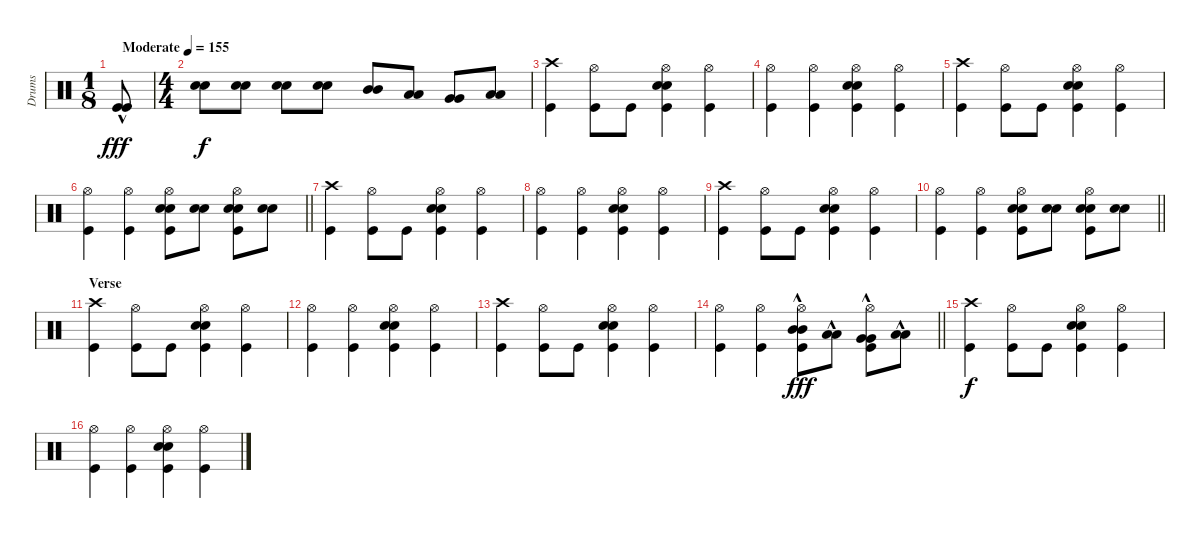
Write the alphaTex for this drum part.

\track ("Drums" "Drums") {instrument percussion}
\staff {score}
\articulation defaults
\ts (1 8)
\tempo (155 "Moderate")
\clef neutral
\ks c
("Kick (hit)"{hac} "Kick (hit)"{hac}).8{dy fff} |
\ts (4 4)
("Snare (hit) 2" "Electric Snare (hit)").8{dy f} ("Snare (hit) 2" "Electric Snare (hit)").8 ("Snare (hit) 2" "Electric Snare (hit)").8 ("Snare (hit) 2" "Electric Snare (hit)").8 ("Mid Tom (hit)" "Mid Tom (hit)").8 ("Low Tom (hit)" "Low Tom (hit)").8 ("Very Low Tom (hit)" "Very Low Tom (hit)").8 ("Low Floor Tom (hit)" "Low Floor Tom (hit)").8 |
("Crash high (hit)" "Kick (hit)").4 ("Hi-Hat (open)" "Kick (hit)").8 "Kick (hit)".8 ("Hi-Hat (open)" "Snare (hit) 2" "Electric Snare (hit)" "Kick (hit)").4 ("Hi-Hat (open)" "Kick (hit)").4 |
("Hi-Hat (open)" "Kick (hit)").4 ("Hi-Hat (open)" "Kick (hit)").4 ("Hi-Hat (open)" "Snare (hit) 2" "Electric Snare (hit)" "Kick (hit)").4 ("Hi-Hat (open)" "Kick (hit)").4 |
("Crash high (hit)" "Kick (hit)").4 ("Hi-Hat (open)" "Kick (hit)").8 "Kick (hit)".8 ("Hi-Hat (open)" "Snare (hit) 2" "Electric Snare (hit)" "Kick (hit)").4 ("Hi-Hat (open)" "Kick (hit)").4 |
\barLineRight lightlight
("Hi-Hat (open)" "Kick (hit)").4 ("Hi-Hat (open)" "Kick (hit)").4 ("Hi-Hat (open)" "Snare (hit) 2" "Electric Snare (hit)" "Kick (hit)").8 ("Snare (hit) 2" "Electric Snare (hit)").8 ("Hi-Hat (open)" "Snare (hit) 2" "Electric Snare (hit)" "Kick (hit)").8 ("Snare (hit) 2" "Electric Snare (hit)").8 |
("Crash high (hit)" "Kick (hit)").4 ("Hi-Hat (open)" "Kick (hit)").8 "Kick (hit)".8 ("Hi-Hat (open)" "Snare (hit) 2" "Electric Snare (hit)" "Kick (hit)").4 ("Hi-Hat (open)" "Kick (hit)").4 |
("Hi-Hat (open)" "Kick (hit)").4 ("Hi-Hat (open)" "Kick (hit)").4 ("Hi-Hat (open)" "Snare (hit) 2" "Electric Snare (hit)" "Kick (hit)").4 ("Hi-Hat (open)" "Kick (hit)").4 |
("Crash high (hit)" "Kick (hit)").4 ("Hi-Hat (open)" "Kick (hit)").8 "Kick (hit)".8 ("Hi-Hat (open)" "Snare (hit) 2" "Electric Snare (hit)" "Kick (hit)").4 ("Hi-Hat (open)" "Kick (hit)").4 |
\barLineRight lightlight
("Hi-Hat (open)" "Kick (hit)").4 ("Hi-Hat (open)" "Kick (hit)").4 ("Hi-Hat (open)" "Snare (hit) 2" "Electric Snare (hit)" "Kick (hit)").8 ("Snare (hit) 2" "Electric Snare (hit)").8 ("Hi-Hat (open)" "Snare (hit) 2" "Electric Snare (hit)" "Kick (hit)").8 ("Snare (hit) 2" "Electric Snare (hit)").8 |
\section ("" "Verse")
("Crash high (hit)" "Kick (hit)").4 ("Hi-Hat (open)" "Kick (hit)").8 "Kick (hit)".8 ("Hi-Hat (open)" "Snare (hit) 2" "Electric Snare (hit)" "Kick (hit)").4 ("Hi-Hat (open)" "Kick (hit)").4 |
("Hi-Hat (open)" "Kick (hit)").4 ("Hi-Hat (open)" "Kick (hit)").4 ("Hi-Hat (open)" "Snare (hit) 2" "Electric Snare (hit)" "Kick (hit)").4 ("Hi-Hat (open)" "Kick (hit)").4 |
("Crash high (hit)" "Kick (hit)").4 ("Hi-Hat (open)" "Kick (hit)").8 "Kick (hit)".8 ("Hi-Hat (open)" "Snare (hit) 2" "Electric Snare (hit)" "Kick (hit)").4 ("Hi-Hat (open)" "Kick (hit)").4 |
\barLineRight lightlight
("Hi-Hat (open)" "Kick (hit)").4 ("Hi-Hat (open)" "Kick (hit)").4 ("Hi-Hat (open)" "Mid Tom (hit)"{hac} "Mid Tom (hit)"{hac} "Kick (hit)").8{dy fff} ("Low Tom (hit)"{hac} "Low Tom (hit)"{hac}).8 ("Hi-Hat (open)" "Very Low Tom (hit)"{hac} "Very Low Tom (hit)"{hac} "Kick (hit)").8 ("Low Floor Tom (hit)"{hac} "Low Floor Tom (hit)"{hac}).8 |
("Crash high (hit)" "Kick (hit)").4{dy f} ("Hi-Hat (open)" "Kick (hit)").8 "Kick (hit)".8 ("Hi-Hat (open)" "Snare (hit) 2" "Electric Snare (hit)" "Kick (hit)").4 ("Hi-Hat (open)" "Kick (hit)").4 |
("Hi-Hat (open)" "Kick (hit)").4 ("Hi-Hat (open)" "Kick (hit)").4 ("Hi-Hat (open)" "Snare (hit) 2" "Electric Snare (hit)" "Kick (hit)").4 ("Hi-Hat (open)" "Kick (hit)").4
